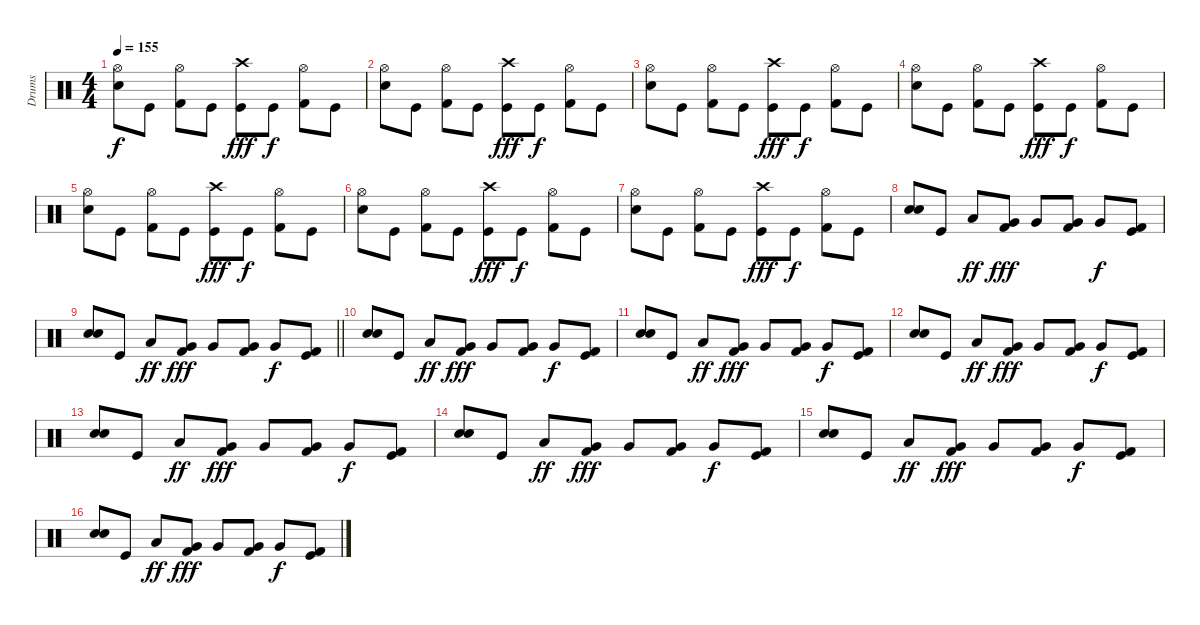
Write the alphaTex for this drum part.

\track ("Drums" "Drums") {instrument percussion}
\staff {score}
\articulation defaults
\ts (4 4)
\tempo 155
\clef neutral
\ks c
("Electric Snare (hit)" "Hi-Hat (open)").8{dy f} "Kick (hit)".8 ("Kick (hit) 2" "Hi-Hat (open)").8 "Kick (hit)".8 ("Kick (hit)" "Crash high (hit)").8{dy fff} "Kick (hit)".8{dy f} ("Kick (hit) 2" "Hi-Hat (open)").8 "Kick (hit)".8 |
("Electric Snare (hit)" "Hi-Hat (open)").8 "Kick (hit)".8 ("Kick (hit) 2" "Hi-Hat (open)").8 "Kick (hit)".8 ("Kick (hit)" "Crash high (hit)").8{dy fff} "Kick (hit)".8{dy f} ("Kick (hit) 2" "Hi-Hat (open)").8 "Kick (hit)".8 |
("Electric Snare (hit)" "Hi-Hat (open)").8 "Kick (hit)".8 ("Kick (hit) 2" "Hi-Hat (open)").8 "Kick (hit)".8 ("Kick (hit)" "Crash high (hit)").8{dy fff} "Kick (hit)".8{dy f} ("Kick (hit) 2" "Hi-Hat (open)").8 "Kick (hit)".8 |
("Electric Snare (hit)" "Hi-Hat (open)").8 "Kick (hit)".8 ("Kick (hit) 2" "Hi-Hat (open)").8 "Kick (hit)".8 ("Kick (hit)" "Crash high (hit)").8{dy fff} "Kick (hit)".8{dy f} ("Kick (hit) 2" "Hi-Hat (open)").8 "Kick (hit)".8 |
("Electric Snare (hit)" "Hi-Hat (open)").8 "Kick (hit)".8 ("Kick (hit) 2" "Hi-Hat (open)").8 "Kick (hit)".8 ("Kick (hit)" "Crash high (hit)").8{dy fff} "Kick (hit)".8{dy f} ("Kick (hit) 2" "Hi-Hat (open)").8 "Kick (hit)".8 |
("Electric Snare (hit)" "Hi-Hat (open)").8 "Kick (hit)".8 ("Kick (hit) 2" "Hi-Hat (open)").8 "Kick (hit)".8 ("Kick (hit)" "Crash high (hit)").8{dy fff} "Kick (hit)".8{dy f} ("Kick (hit) 2" "Hi-Hat (open)").8 "Kick (hit)".8 |
("Electric Snare (hit)" "Hi-Hat (open)").8 "Kick (hit)".8 ("Kick (hit) 2" "Hi-Hat (open)").8 "Kick (hit)".8 ("Kick (hit)" "Crash high (hit)").8{dy fff} "Kick (hit)".8{dy f} ("Kick (hit) 2" "Hi-Hat (open)").8 "Kick (hit)".8 |
("Snare (hit) 2" "Electric Snare (hit)").8 "Kick (hit)".8 "Low Floor Tom (hit)".8{dy ff} ("Very Low Tom (hit)" "Kick (hit) 2").8{dy fff} "Very Low Tom (hit)".8 ("Very Low Tom (hit)" "Kick (hit) 2").8 "Very Low Tom (hit)".8{dy f} ("Kick (hit)" "Kick (hit) 2").8 |
\barLineRight lightlight
("Snare (hit) 2" "Electric Snare (hit)").8 "Kick (hit)".8 "Low Floor Tom (hit)".8{dy ff} ("Very Low Tom (hit)" "Kick (hit) 2").8{dy fff} "Very Low Tom (hit)".8 ("Very Low Tom (hit)" "Kick (hit) 2").8 "Very Low Tom (hit)".8{dy f} ("Kick (hit)" "Kick (hit) 2").8 |
("Snare (hit) 2" "Electric Snare (hit)").8 "Kick (hit)".8 "Low Floor Tom (hit)".8{dy ff} ("Very Low Tom (hit)" "Kick (hit) 2").8{dy fff} "Very Low Tom (hit)".8 ("Very Low Tom (hit)" "Kick (hit) 2").8 "Very Low Tom (hit)".8{dy f} ("Kick (hit)" "Kick (hit) 2").8 |
("Snare (hit) 2" "Electric Snare (hit)").8 "Kick (hit)".8 "Low Floor Tom (hit)".8{dy ff} ("Very Low Tom (hit)" "Kick (hit) 2").8{dy fff} "Very Low Tom (hit)".8 ("Very Low Tom (hit)" "Kick (hit) 2").8 "Very Low Tom (hit)".8{dy f} ("Kick (hit)" "Kick (hit) 2").8 |
("Snare (hit) 2" "Electric Snare (hit)").8 "Kick (hit)".8 "Low Floor Tom (hit)".8{dy ff} ("Very Low Tom (hit)" "Kick (hit) 2").8{dy fff} "Very Low Tom (hit)".8 ("Very Low Tom (hit)" "Kick (hit) 2").8 "Very Low Tom (hit)".8{dy f} ("Kick (hit)" "Kick (hit) 2").8 |
("Snare (hit) 2" "Electric Snare (hit)").8 "Kick (hit)".8 "Low Floor Tom (hit)".8{dy ff} ("Very Low Tom (hit)" "Kick (hit) 2").8{dy fff} "Very Low Tom (hit)".8 ("Very Low Tom (hit)" "Kick (hit) 2").8 "Very Low Tom (hit)".8{dy f} ("Kick (hit)" "Kick (hit) 2").8 |
("Snare (hit) 2" "Electric Snare (hit)").8 "Kick (hit)".8 "Low Floor Tom (hit)".8{dy ff} ("Very Low Tom (hit)" "Kick (hit) 2").8{dy fff} "Very Low Tom (hit)".8 ("Very Low Tom (hit)" "Kick (hit) 2").8 "Very Low Tom (hit)".8{dy f} ("Kick (hit)" "Kick (hit) 2").8 |
("Snare (hit) 2" "Electric Snare (hit)").8 "Kick (hit)".8 "Low Floor Tom (hit)".8{dy ff} ("Very Low Tom (hit)" "Kick (hit) 2").8{dy fff} "Very Low Tom (hit)".8 ("Very Low Tom (hit)" "Kick (hit) 2").8 "Very Low Tom (hit)".8{dy f} ("Kick (hit)" "Kick (hit) 2").8 |
("Snare (hit) 2" "Electric Snare (hit)").8 "Kick (hit)".8 "Low Floor Tom (hit)".8{dy ff} ("Very Low Tom (hit)" "Kick (hit) 2").8{dy fff} "Very Low Tom (hit)".8 ("Very Low Tom (hit)" "Kick (hit) 2").8 "Very Low Tom (hit)".8{dy f} ("Kick (hit)" "Kick (hit) 2").8
